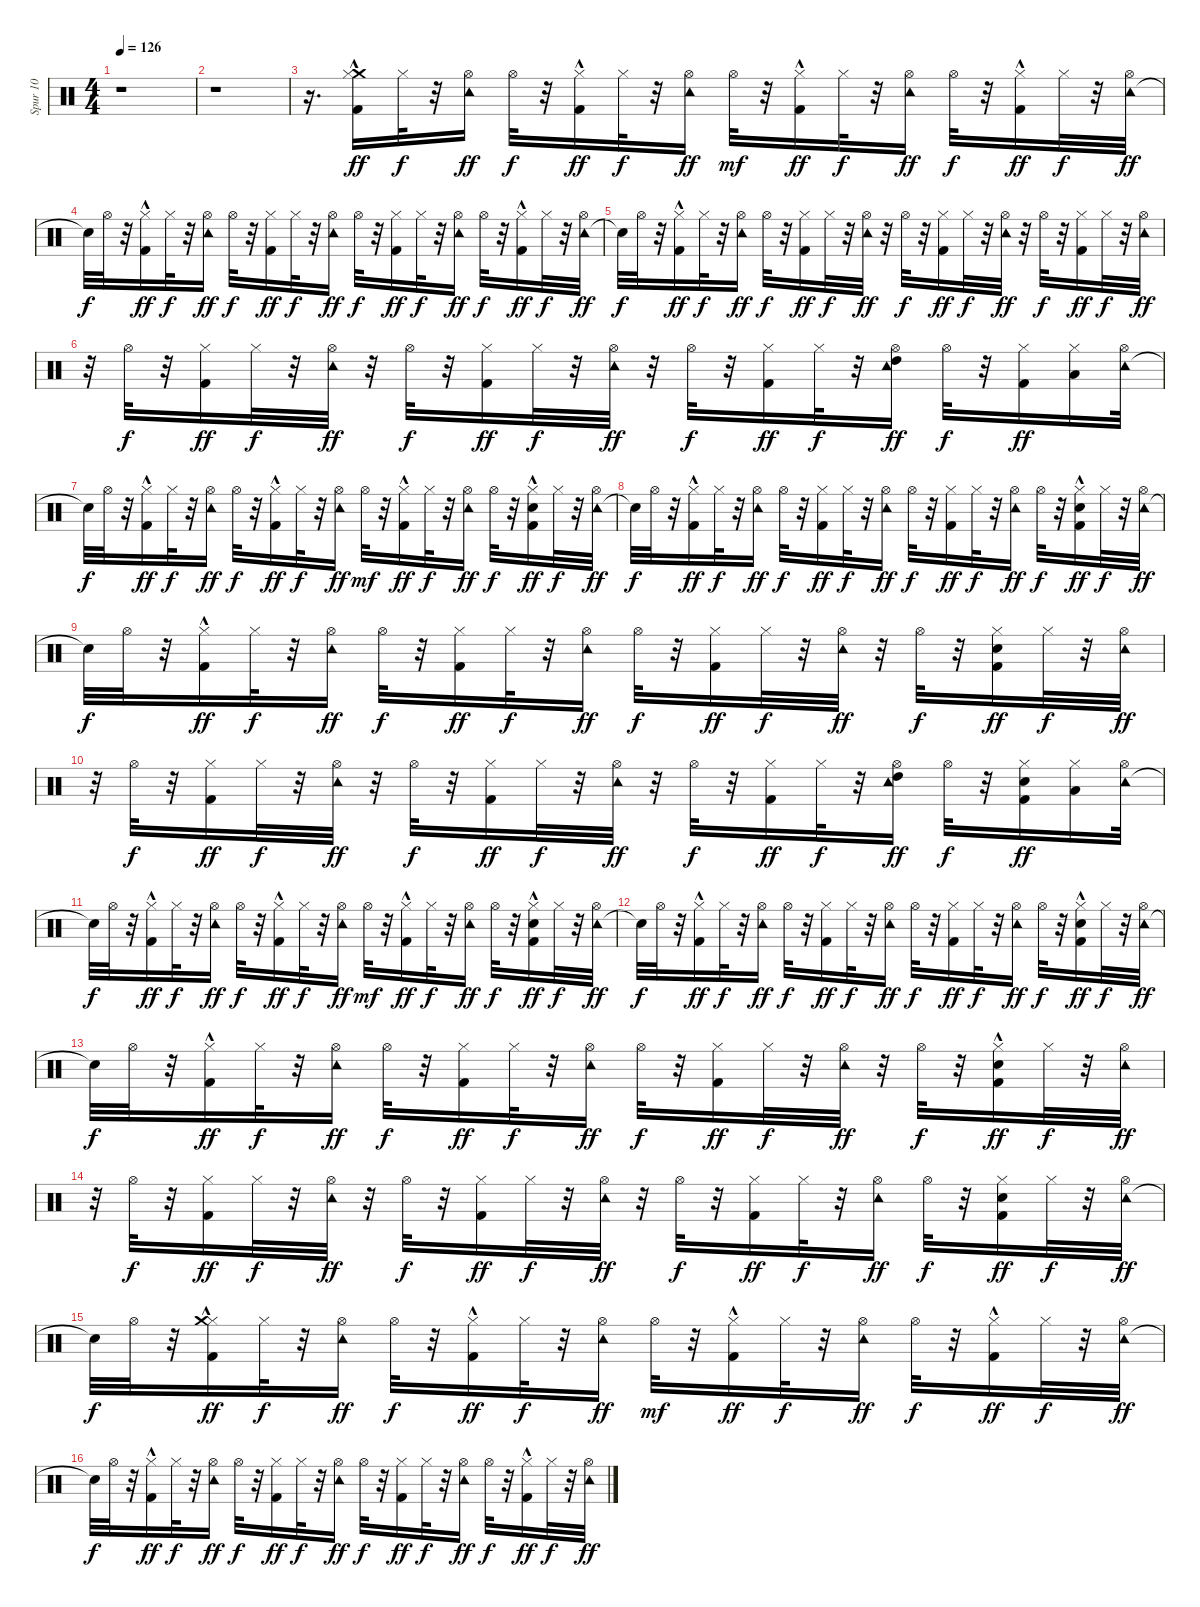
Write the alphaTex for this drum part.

\track ("Spur 10" "Spur 10") {instrument percussion}
\staff {score}
\articulation defaults
\ts (4 4)
\tempo 126
\clef neutral
\ks c
r.1{dy ff} |
r.1 |
r.16{d} ("Kick (hit) 2"{hac} "Crash medium (hit)" "Hi-Hat (closed)").16 "Hi-Hat (closed)".32{dy f} r.32 ("Tambourine (hit)" "Hi-Hat (open)").16{dy ff} "Hi-Hat (open)".32{dy f} r.32 ("Kick (hit) 2"{hac} "Hi-Hat (closed)").16{dy ff} "Hi-Hat (closed)".32{dy f} r.32 ("Tambourine (hit)" "Hi-Hat (open)").16{dy ff} "Hi-Hat (open)".32{dy mf} r.32 ("Kick (hit) 2"{hac} "Hi-Hat (closed)").16{dy ff} "Hi-Hat (closed)".32{dy f} r.32 ("Tambourine (hit)" "Hi-Hat (open)").16{dy ff} "Hi-Hat (open)".32{dy f} r.32 ("Kick (hit) 2"{hac} "Hi-Hat (closed)").16{dy ff} "Hi-Hat (closed)".32{dy f} r.32 ("Tambourine (hit)" "Hi-Hat (open)").32{dy ff} |
"Snare (hit)"{t}.32{dy f} "Hi-Hat (open)".32 r.32 ("Kick (hit) 2"{hac} "Hi-Hat (closed)").16{dy ff} "Hi-Hat (closed)".32{dy f} r.32 ("Tambourine (hit)" "Hi-Hat (open)").16{dy ff} "Hi-Hat (open)".32{dy f} r.32 ("Kick (hit) 2" "Hi-Hat (closed)").16{dy ff} "Hi-Hat (closed)".32{dy f} r.32 ("Tambourine (hit)" "Hi-Hat (open)").16{dy ff} "Hi-Hat (open)".32{dy f} r.32 ("Kick (hit) 2" "Hi-Hat (closed)").16{dy ff} "Hi-Hat (closed)".32{dy f} r.32 ("Tambourine (hit)" "Hi-Hat (open)").16{dy ff} "Hi-Hat (open)".32{dy f} r.32 ("Kick (hit) 2"{hac} "Hi-Hat (closed)").16{dy ff} "Hi-Hat (closed)".32{dy f} r.32 ("Tambourine (hit)" "Hi-Hat (open)").32{dy ff} |
"Snare (hit)"{t}.32{dy f} "Hi-Hat (open)".32 r.32 ("Kick (hit) 2"{hac} "Hi-Hat (closed)").16{dy ff} "Hi-Hat (closed)".32{dy f} r.32 ("Tambourine (hit)" "Hi-Hat (open)").16{dy ff} "Hi-Hat (open)".32{dy f} r.32 ("Kick (hit) 2" "Hi-Hat (closed)").16{dy ff} "Hi-Hat (closed)".32{dy f} r.32 ("Tambourine (hit)" "Hi-Hat (open)").32{dy ff} r.32 "Hi-Hat (open)".32{dy f} r.32 ("Kick (hit) 2" "Hi-Hat (closed)").16{dy ff} "Hi-Hat (closed)".32{dy f} r.32 ("Tambourine (hit)" "Hi-Hat (open)").32{dy ff} r.32 "Hi-Hat (open)".32{dy f} r.32 ("Kick (hit) 2" "Hi-Hat (closed)").16{dy ff} "Hi-Hat (closed)".32{dy f} r.32 ("Tambourine (hit)" "Hi-Hat (open)").32{dy ff} |
r.32 "Hi-Hat (open)".32{dy f} r.32 ("Kick (hit) 2" "Hi-Hat (closed)").16{dy ff} "Hi-Hat (closed)".32{dy f} r.32 ("Tambourine (hit)" "Hi-Hat (open)").32{dy ff} r.32 "Hi-Hat (open)".32{dy f} r.32 ("Kick (hit) 2" "Hi-Hat (closed)").16{dy ff} "Hi-Hat (closed)".32{dy f} r.32 ("Tambourine (hit)" "Hi-Hat (open)").32{dy ff} r.32 "Hi-Hat (open)".32{dy f} r.32 ("Kick (hit) 2" "Hi-Hat (closed)").16{dy ff} "Hi-Hat (closed)".32{dy f} r.32 ("High Tom (hit)" "Tambourine (hit)" "Hi-Hat (open)").16{dy ff} "Hi-Hat (open)".32{dy f} r.32 ("Kick (hit) 2" "Hi-Hat (closed)").16{dy ff} ("Low Tom (hit)" "Hi-Hat (closed)").16 ("Tambourine (hit)" "Hi-Hat (open)").32 |
"Snare (hit)"{t}.32{dy f} "Hi-Hat (open)".32 r.32 ("Kick (hit) 2"{hac} "Hi-Hat (closed)").16{dy ff volume 11} "Hi-Hat (closed)".32{dy f} r.32 ("Tambourine (hit)" "Hi-Hat (open)").16{dy ff} "Hi-Hat (open)".32{dy f} r.32 ("Kick (hit) 2"{hac} "Hi-Hat (closed)").16{dy ff} "Hi-Hat (closed)".32{dy f} r.32 ("Tambourine (hit)" "Hi-Hat (open)").16{dy ff} "Hi-Hat (open)".32{dy mf} r.32 ("Kick (hit) 2"{hac} "Hi-Hat (closed)").16{dy ff} "Hi-Hat (closed)".32{dy f} r.32 ("Tambourine (hit)" "Hi-Hat (open)").16{dy ff} "Hi-Hat (open)".32{dy f} r.32 ("Snare (hit) 2"{hac} "Kick (hit) 2"{hac} "Hi-Hat (closed)").16{dy ff} "Hi-Hat (closed)".32{dy f} r.32 ("Tambourine (hit)" "Hi-Hat (open)").32{dy ff} |
"Snare (hit)"{t}.32{dy f} "Hi-Hat (open)".32 r.32 ("Kick (hit) 2"{hac} "Hi-Hat (closed)").16{dy ff} "Hi-Hat (closed)".32{dy f} r.32 ("Tambourine (hit)" "Hi-Hat (open)").16{dy ff} "Hi-Hat (open)".32{dy f} r.32 ("Kick (hit) 2" "Hi-Hat (closed)").16{dy ff} "Hi-Hat (closed)".32{dy f} r.32 ("Tambourine (hit)" "Hi-Hat (open)").16{dy ff} "Hi-Hat (open)".32{dy f} r.32 ("Kick (hit) 2" "Hi-Hat (closed)").16{dy ff} "Hi-Hat (closed)".32{dy f} r.32 ("Tambourine (hit)" "Hi-Hat (open)").16{dy ff} "Hi-Hat (open)".32{dy f} r.32 ("Snare (hit) 2"{hac} "Kick (hit) 2"{hac} "Hi-Hat (closed)").16{dy ff} "Hi-Hat (closed)".32{dy f} r.32 ("Tambourine (hit)" "Hi-Hat (open)").32{dy ff} |
"Snare (hit)"{t}.32{dy f} "Hi-Hat (open)".32 r.32 ("Kick (hit) 2"{hac} "Hi-Hat (closed)").16{dy ff} "Hi-Hat (closed)".32{dy f} r.32 ("Tambourine (hit)" "Hi-Hat (open)").16{dy ff} "Hi-Hat (open)".32{dy f} r.32 ("Kick (hit) 2" "Hi-Hat (closed)").16{dy ff} "Hi-Hat (closed)".32{dy f} r.32 ("Tambourine (hit)" "Hi-Hat (open)").16{dy ff} "Hi-Hat (open)".32{dy f} r.32 ("Kick (hit) 2" "Hi-Hat (closed)").16{dy ff} "Hi-Hat (closed)".32{dy f} r.32 ("Tambourine (hit)" "Hi-Hat (open)").32{dy ff} r.32 "Hi-Hat (open)".32{dy f} r.32 ("Snare (hit) 2" "Kick (hit) 2" "Hi-Hat (closed)").16{dy ff} "Hi-Hat (closed)".32{dy f} r.32 ("Tambourine (hit)" "Hi-Hat (open)").32{dy ff} |
r.32 "Hi-Hat (open)".32{dy f} r.32 ("Kick (hit) 2" "Hi-Hat (closed)").16{dy ff} "Hi-Hat (closed)".32{dy f} r.32 ("Tambourine (hit)" "Hi-Hat (open)").32{dy ff} r.32 "Hi-Hat (open)".32{dy f} r.32 ("Kick (hit) 2" "Hi-Hat (closed)").16{dy ff} "Hi-Hat (closed)".32{dy f} r.32 ("Tambourine (hit)" "Hi-Hat (open)").32{dy ff} r.32 "Hi-Hat (open)".32{dy f} r.32 ("Kick (hit) 2" "Hi-Hat (closed)").16{dy ff} "Hi-Hat (closed)".32{dy f} r.32 ("High Tom (hit)" "Tambourine (hit)" "Hi-Hat (open)").16{dy ff} "Hi-Hat (open)".32{dy f} r.32 ("Snare (hit) 2" "Kick (hit) 2" "Hi-Hat (closed)").16{dy ff} ("Low Tom (hit)" "Hi-Hat (closed)").16 ("Tambourine (hit)" "Hi-Hat (open)").32 |
"Snare (hit)"{t}.32{dy f} "Hi-Hat (open)".32 r.32 ("Kick (hit) 2"{hac} "Hi-Hat (closed)").16{dy ff} "Hi-Hat (closed)".32{dy f} r.32 ("Tambourine (hit)" "Hi-Hat (open)").16{dy ff} "Hi-Hat (open)".32{dy f} r.32 ("Kick (hit) 2"{hac} "Hi-Hat (closed)").16{dy ff} "Hi-Hat (closed)".32{dy f} r.32 ("Tambourine (hit)" "Hi-Hat (open)").16{dy ff} "Hi-Hat (open)".32{dy mf} r.32 ("Kick (hit) 2"{hac} "Hi-Hat (closed)").16{dy ff} "Hi-Hat (closed)".32{dy f} r.32 ("Tambourine (hit)" "Hi-Hat (open)").16{dy ff} "Hi-Hat (open)".32{dy f} r.32 ("Snare (hit) 2" "Kick (hit) 2"{hac} "Hi-Hat (closed)").16{dy ff} "Hi-Hat (closed)".32{dy f} r.32 ("Tambourine (hit)" "Hi-Hat (open)").32{dy ff} |
"Snare (hit)"{t}.32{dy f} "Hi-Hat (open)".32 r.32 ("Kick (hit) 2"{hac} "Hi-Hat (closed)").16{dy ff} "Hi-Hat (closed)".32{dy f} r.32 ("Tambourine (hit)" "Hi-Hat (open)").16{dy ff} "Hi-Hat (open)".32{dy f} r.32 ("Kick (hit) 2" "Hi-Hat (closed)").16{dy ff} "Hi-Hat (closed)".32{dy f} r.32 ("Tambourine (hit)" "Hi-Hat (open)").16{dy ff} "Hi-Hat (open)".32{dy f} r.32 ("Kick (hit) 2" "Hi-Hat (closed)").16{dy ff} "Hi-Hat (closed)".32{dy f} r.32 ("Tambourine (hit)" "Hi-Hat (open)").16{dy ff} "Hi-Hat (open)".32{dy f} r.32 ("Snare (hit) 2"{hac} "Kick (hit) 2"{hac} "Hi-Hat (closed)").16{dy ff} "Hi-Hat (closed)".32{dy f} r.32 ("Tambourine (hit)" "Hi-Hat (open)").32{dy ff} |
"Snare (hit)"{t}.32{dy f} "Hi-Hat (open)".32 r.32 ("Kick (hit) 2"{hac} "Hi-Hat (closed)").16{dy ff} "Hi-Hat (closed)".32{dy f} r.32 ("Tambourine (hit)" "Hi-Hat (open)").16{dy ff} "Hi-Hat (open)".32{dy f} r.32 ("Kick (hit) 2" "Hi-Hat (closed)").16{dy ff} "Hi-Hat (closed)".32{dy f} r.32 ("Tambourine (hit)" "Hi-Hat (open)").16{dy ff} "Hi-Hat (open)".32{dy f} r.32 ("Kick (hit) 2" "Hi-Hat (closed)").16{dy ff} "Hi-Hat (closed)".32{dy f} r.32 ("Tambourine (hit)" "Hi-Hat (open)").32{dy ff} r.32 "Hi-Hat (open)".32{dy f} r.32 ("Snare (hit) 2"{hac} "Kick (hit) 2" "Hi-Hat (closed)").16{dy ff} "Hi-Hat (closed)".32{dy f} r.32 ("Tambourine (hit)" "Hi-Hat (open)").32{dy ff} |
r.32 "Hi-Hat (open)".32{dy f} r.32 ("Kick (hit) 2" "Hi-Hat (closed)").16{dy ff} "Hi-Hat (closed)".32{dy f} r.32 ("Tambourine (hit)" "Hi-Hat (open)").32{dy ff} r.32 "Hi-Hat (open)".32{dy f} r.32 ("Kick (hit) 2" "Hi-Hat (closed)").16{dy ff} "Hi-Hat (closed)".32{dy f} r.32 ("Tambourine (hit)" "Hi-Hat (open)").32{dy ff} r.32 "Hi-Hat (open)".32{dy f} r.32 ("Kick (hit) 2" "Hi-Hat (closed)").16{dy ff} "Hi-Hat (closed)".32{dy f} r.32 ("Tambourine (hit)" "Hi-Hat (open)").16{dy ff} "Hi-Hat (open)".32{dy f} r.32 ("Snare (hit) 2" "Kick (hit) 2" "Hi-Hat (closed)").16{dy ff} "Hi-Hat (closed)".32{dy f} r.32 ("Tambourine (hit)" "Hi-Hat (open)").32{dy ff} |
"Snare (hit)"{t}.32{dy f} "Hi-Hat (open)".32 r.32 ("Kick (hit) 2"{hac} "Hi-Hat (closed)" "Crash medium (hit)").16{dy ff} "Hi-Hat (closed)".32{dy f} r.32 ("Tambourine (hit)" "Hi-Hat (open)").16{dy ff} "Hi-Hat (open)".32{dy f} r.32 ("Kick (hit) 2"{hac} "Hi-Hat (closed)").16{dy ff} "Hi-Hat (closed)".32{dy f} r.32 ("Tambourine (hit)" "Hi-Hat (open)").16{dy ff} "Hi-Hat (open)".32{dy mf} r.32 ("Kick (hit) 2"{hac} "Hi-Hat (closed)").16{dy ff} "Hi-Hat (closed)".32{dy f} r.32 ("Tambourine (hit)" "Hi-Hat (open)").16{dy ff} "Hi-Hat (open)".32{dy f} r.32 ("Kick (hit) 2"{hac} "Hi-Hat (closed)").16{dy ff} "Hi-Hat (closed)".32{dy f} r.32 ("Tambourine (hit)" "Hi-Hat (open)").32{dy ff} |
"Snare (hit)"{t}.32{dy f} "Hi-Hat (open)".32 r.32 ("Kick (hit) 2"{hac} "Hi-Hat (closed)").16{dy ff} "Hi-Hat (closed)".32{dy f} r.32 ("Tambourine (hit)" "Hi-Hat (open)").16{dy ff} "Hi-Hat (open)".32{dy f} r.32 ("Kick (hit) 2" "Hi-Hat (closed)").16{dy ff} "Hi-Hat (closed)".32{dy f} r.32 ("Tambourine (hit)" "Hi-Hat (open)").16{dy ff} "Hi-Hat (open)".32{dy f} r.32 ("Kick (hit) 2" "Hi-Hat (closed)").16{dy ff} "Hi-Hat (closed)".32{dy f} r.32 ("Tambourine (hit)" "Hi-Hat (open)").16{dy ff} "Hi-Hat (open)".32{dy f} r.32 ("Kick (hit) 2"{hac} "Hi-Hat (closed)").16{dy ff} "Hi-Hat (closed)".32{dy f} r.32 ("Tambourine (hit)" "Hi-Hat (open)").32{dy ff}
